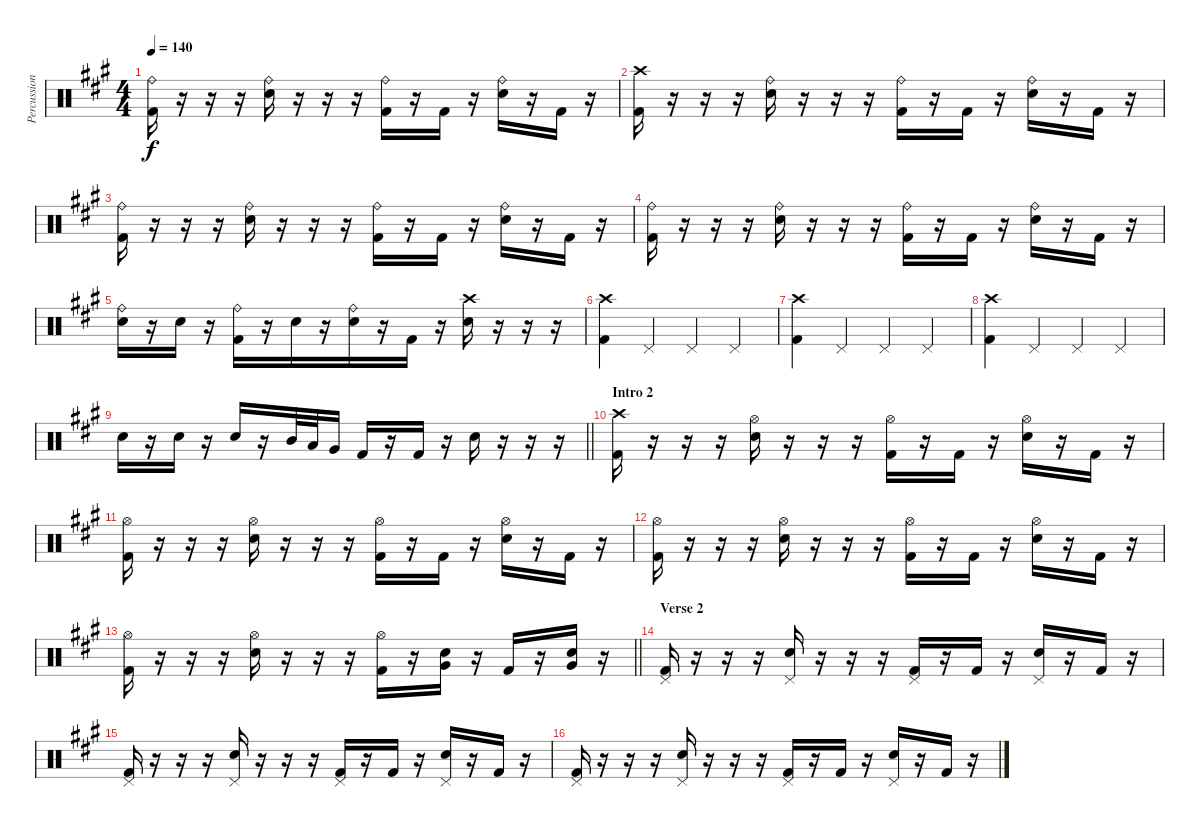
\track ("Percussion" "Percussion") {instrument percussion}
\staff {score}
\articulation defaults
\ts (4 4)
\tempo 140
\clef neutral
\ks a
("Kick (hit) 2" "Ride (bell)").16{dy f} r.16{beam merge} r.16 r.16{beam merge} ("Electric Snare (hit)" "Ride (bell)").16 r.16 r.16{beam merge} r.16 ("Kick (hit) 2" "Ride (bell)").16 r.16 "Kick (hit) 2".16 r.16 ("Electric Snare (hit)" "Ride (bell)").16 r.16{beam merge} "Kick (hit) 2".16 r.16 |
("Kick (hit) 2" "Crash high (hit)").16 r.16{beam merge} r.16 r.16{beam merge} ("Electric Snare (hit)" "Ride (bell)").16 r.16 r.16{beam merge} r.16 ("Kick (hit) 2" "Ride (bell)").16 r.16 "Kick (hit) 2".16 r.16 ("Electric Snare (hit)" "Ride (bell)").16 r.16{beam merge} "Kick (hit) 2".16 r.16 |
("Kick (hit) 2" "Ride (bell)").16 r.16{beam merge} r.16 r.16{beam merge} ("Electric Snare (hit)" "Ride (bell)").16 r.16 r.16{beam merge} r.16 ("Kick (hit) 2" "Ride (bell)").16 r.16 "Kick (hit) 2".16 r.16 ("Electric Snare (hit)" "Ride (bell)").16 r.16{beam merge} "Kick (hit) 2".16 r.16 |
("Kick (hit) 2" "Ride (bell)").16 r.16{beam merge} r.16 r.16{beam merge} ("Electric Snare (hit)" "Ride (bell)").16 r.16 r.16{beam merge} r.16 ("Kick (hit) 2" "Ride (bell)").16 r.16 "Kick (hit) 2".16 r.16 ("Electric Snare (hit)" "Ride (bell)").16 r.16{beam merge} "Kick (hit) 2".16 r.16 |
("Electric Snare (hit)" "Ride (bell)").16 r.16{beam merge} "Electric Snare (hit)".16 r.16{beam merge} ("Kick (hit) 2" "Ride (bell)").16 r.16 "Electric Snare (hit)".16{beam merge} r.16 ("Electric Snare (hit)" "Ride (bell)").16 r.16 "Kick (hit) 2".16 r.16 ("Electric Snare (hit)" "Crash high (hit)").16 r.16{beam merge} r.16 r.16 |
("Kick (hit) 2" "Crash high (hit)").4 "Pedal Hi-Hat (hit)".4 "Pedal Hi-Hat (hit)".4{beam merge} "Pedal Hi-Hat (hit)".4 |
("Kick (hit) 2" "Crash high (hit)").4 "Pedal Hi-Hat (hit)".4 "Pedal Hi-Hat (hit)".4{beam merge} "Pedal Hi-Hat (hit)".4 |
("Kick (hit) 2" "Crash high (hit)").4 "Pedal Hi-Hat (hit)".4 "Pedal Hi-Hat (hit)".4{beam merge} "Pedal Hi-Hat (hit)".4 |
\barLineRight lightlight "Electric Snare (hit)".16
r.16{beam merge} "Electric Snare (hit)".16 r.16{beam merge} "Electric Snare (hit)".16 r.16 "Mid Tom (hit)".32{beam merge} "Low Tom (hit)".32 "Very Low Tom (hit)".16 "Kick (hit) 2".16 r.16 "Kick (hit) 2".16 r.16 "Electric Snare (hit)".16{beam merge} r.16 r.16 r.16 |
\section ("" "Intro 2")
("Kick (hit) 2" "Crash high (hit)").16 r.16{beam merge} r.16 r.16{beam merge} ("Electric Snare (hit)" "Hi-Hat (open)").16 r.16 r.16{beam merge} r.16 ("Kick (hit) 2" "Hi-Hat (open)").16 r.16 "Kick (hit) 2".16 r.16 ("Electric Snare (hit)" "Hi-Hat (open)").16 r.16{beam merge} "Kick (hit) 2".16 r.16 |
("Kick (hit) 2" "Hi-Hat (open)").16 r.16{beam merge} r.16 r.16{beam merge} ("Electric Snare (hit)" "Hi-Hat (open)").16 r.16 r.16{beam merge} r.16 ("Kick (hit) 2" "Hi-Hat (open)").16 r.16 "Kick (hit) 2".16 r.16 ("Electric Snare (hit)" "Hi-Hat (open)").16 r.16{beam merge} "Kick (hit) 2".16 r.16 |
("Kick (hit) 2" "Hi-Hat (open)").16 r.16{beam merge} r.16 r.16{beam merge} ("Electric Snare (hit)" "Hi-Hat (open)").16 r.16 r.16{beam merge} r.16 ("Kick (hit) 2" "Hi-Hat (open)").16 r.16 "Kick (hit) 2".16 r.16 ("Electric Snare (hit)" "Hi-Hat (open)").16 r.16{beam merge} "Kick (hit) 2".16 r.16 |
\barLineRight lightlight
("Kick (hit) 2" "Hi-Hat (open)").16 r.16{beam merge} r.16 r.16{beam merge} ("Electric Snare (hit)" "Hi-Hat (open)").16 r.16 r.16{beam merge} r.16 ("Kick (hit) 2" "Hi-Hat (open)").16 r.16 ("Electric Snare (hit)" "Very Low Tom (hit)").16 r.16 "Kick (hit) 2".16 r.16{beam merge} ("Electric Snare (hit)" "Very Low Tom (hit)").16 r.16 |
\section ("" "Verse 2")
("Kick (hit) 2" "Pedal Hi-Hat (hit)").16 r.16{beam merge} r.16 r.16{beam merge} ("Electric Snare (hit)" "Pedal Hi-Hat (hit)").16 r.16 r.16{beam merge} r.16 ("Kick (hit) 2" "Pedal Hi-Hat (hit)").16 r.16 "Kick (hit) 2".16 r.16 ("Electric Snare (hit)" "Pedal Hi-Hat (hit)").16 r.16{beam merge} "Kick (hit) 2".16 r.16 |
("Kick (hit) 2" "Pedal Hi-Hat (hit)").16 r.16{beam merge} r.16 r.16{beam merge} ("Electric Snare (hit)" "Pedal Hi-Hat (hit)").16 r.16 r.16{beam merge} r.16 ("Kick (hit) 2" "Pedal Hi-Hat (hit)").16 r.16 "Kick (hit) 2".16 r.16 ("Electric Snare (hit)" "Pedal Hi-Hat (hit)").16 r.16{beam merge} "Kick (hit) 2".16 r.16 |
("Kick (hit) 2" "Pedal Hi-Hat (hit)").16 r.16{beam merge} r.16 r.16{beam merge} ("Electric Snare (hit)" "Pedal Hi-Hat (hit)").16 r.16 r.16{beam merge} r.16 ("Kick (hit) 2" "Pedal Hi-Hat (hit)").16 r.16 "Kick (hit) 2".16 r.16 ("Electric Snare (hit)" "Pedal Hi-Hat (hit)").16 r.16{beam merge} "Kick (hit) 2".16 r.16
